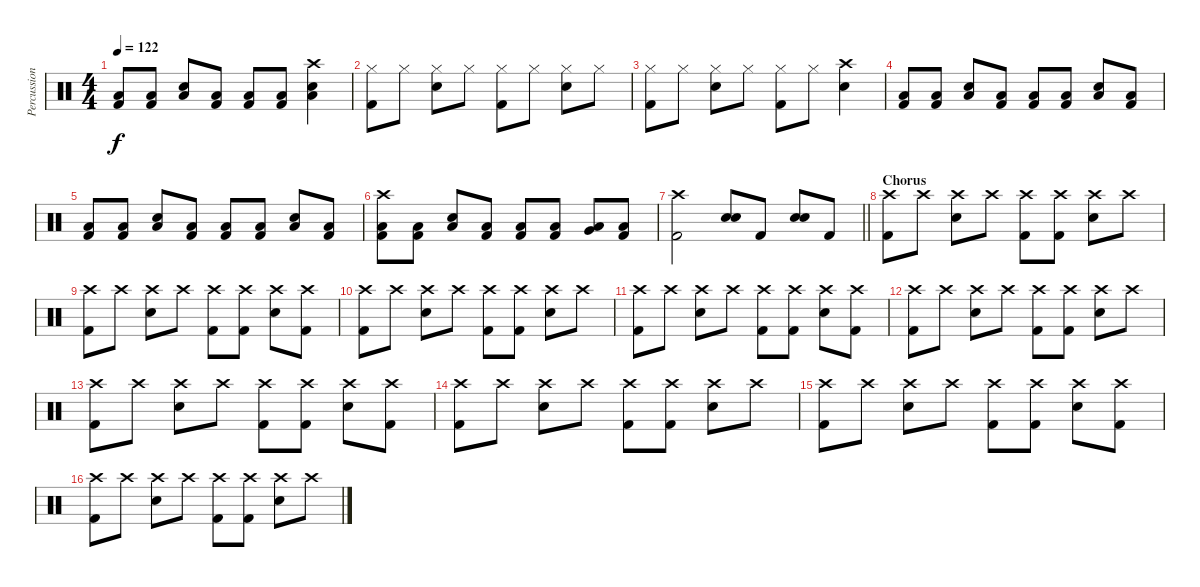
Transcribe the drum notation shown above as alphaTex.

\track ("Percussion" "Percussion") {instrument percussion}
\staff {score}
\articulation defaults
\ts (4 4)
\tempo 122
\clef neutral
\ks c
("Low Floor Tom (hit)" "Kick (hit) 2").8{dy f} ("Low Floor Tom (hit)" "Kick (hit) 2").8 ("Electric Snare (hit)" "Low Floor Tom (hit)").8 ("Low Floor Tom (hit)" "Kick (hit) 2").8 ("Low Floor Tom (hit)" "Kick (hit) 2").8 ("Low Floor Tom (hit)" "Kick (hit) 2").8 ("Crash high (hit)" "Electric Snare (hit)" "Low Floor Tom (hit)").4 |
("Hi-Hat (closed)" "Kick (hit) 2").8 "Hi-Hat (closed)".8 ("Hi-Hat (closed)" "Electric Snare (hit)").8 "Hi-Hat (closed)".8 ("Hi-Hat (closed)" "Kick (hit) 2").8 "Hi-Hat (closed)".8 ("Hi-Hat (closed)" "Electric Snare (hit)").8 "Hi-Hat (closed)".8 |
("Hi-Hat (closed)" "Kick (hit) 2").8 "Hi-Hat (closed)".8 ("Hi-Hat (closed)" "Electric Snare (hit)").8 "Hi-Hat (closed)".8 ("Hi-Hat (closed)" "Kick (hit) 2").8 "Hi-Hat (closed)".8 ("Crash high (hit)" "Electric Snare (hit)").4 |
("Low Floor Tom (hit)" "Kick (hit) 2").8 ("Low Floor Tom (hit)" "Kick (hit) 2").8 ("Electric Snare (hit)" "Low Floor Tom (hit)").8 ("Low Floor Tom (hit)" "Kick (hit) 2").8 ("Low Floor Tom (hit)" "Kick (hit) 2").8 ("Low Floor Tom (hit)" "Kick (hit) 2").8 ("Electric Snare (hit)" "Low Floor Tom (hit)").8 ("Low Floor Tom (hit)" "Kick (hit) 2").8 |
("Low Floor Tom (hit)" "Kick (hit) 2").8 ("Low Floor Tom (hit)" "Kick (hit) 2").8 ("Electric Snare (hit)" "Low Floor Tom (hit)").8 ("Low Floor Tom (hit)" "Kick (hit) 2").8 ("Low Floor Tom (hit)" "Kick (hit) 2").8 ("Low Floor Tom (hit)" "Kick (hit) 2").8 ("Electric Snare (hit)" "Low Floor Tom (hit)").8 ("Low Floor Tom (hit)" "Kick (hit) 2").8 |
("Crash high (hit)" "Low Floor Tom (hit)" "Kick (hit) 2").8 ("Low Floor Tom (hit)" "Kick (hit) 2").8 ("Electric Snare (hit)" "Low Floor Tom (hit)").8 ("Low Floor Tom (hit)" "Kick (hit) 2").8 ("Low Floor Tom (hit)" "Kick (hit) 2").8 ("Low Floor Tom (hit)" "Kick (hit) 2").8 ("Very Low Tom (hit)" "Low Floor Tom (hit)").8 ("Low Floor Tom (hit)" "Kick (hit) 2").8 |
\barLineRight lightlight
("Crash high (hit)" "Kick (hit) 2").2 ("Electric Snare (hit)" "Electric Snare (hit)").8 "Kick (hit) 2".8 ("Electric Snare (hit)" "Electric Snare (hit)").8 "Kick (hit) 2".8 |
\section ("" "Chorus")
("Crash high (hit)" "Kick (hit) 2").8 "Crash high (hit)".8 ("Crash high (hit)" "Electric Snare (hit)").8 "Crash high (hit)".8 ("Crash high (hit)" "Kick (hit) 2").8 ("Crash high (hit)" "Kick (hit) 2").8 ("Crash high (hit)" "Electric Snare (hit)").8 "Crash high (hit)".8 |
("Crash high (hit)" "Kick (hit) 2").8 "Crash high (hit)".8 ("Crash high (hit)" "Electric Snare (hit)").8 "Crash high (hit)".8 ("Crash high (hit)" "Kick (hit) 2").8 ("Crash high (hit)" "Kick (hit) 2").8 ("Crash high (hit)" "Electric Snare (hit)").8 ("Crash high (hit)" "Kick (hit) 2").8 |
("Crash high (hit)" "Kick (hit) 2").8 "Crash high (hit)".8 ("Crash high (hit)" "Electric Snare (hit)").8 "Crash high (hit)".8 ("Crash high (hit)" "Kick (hit) 2").8 ("Crash high (hit)" "Kick (hit) 2").8 ("Crash high (hit)" "Electric Snare (hit)").8 "Crash high (hit)".8 |
("Crash high (hit)" "Kick (hit) 2").8 "Crash high (hit)".8 ("Crash high (hit)" "Electric Snare (hit)").8 "Crash high (hit)".8 ("Crash high (hit)" "Kick (hit) 2").8 ("Crash high (hit)" "Kick (hit) 2").8 ("Crash high (hit)" "Electric Snare (hit)").8 ("Crash high (hit)" "Kick (hit) 2").8 |
("Crash high (hit)" "Kick (hit) 2").8 "Crash high (hit)".8 ("Crash high (hit)" "Electric Snare (hit)").8 "Crash high (hit)".8 ("Crash high (hit)" "Kick (hit) 2").8 ("Crash high (hit)" "Kick (hit) 2").8 ("Crash high (hit)" "Electric Snare (hit)").8 "Crash high (hit)".8 |
("Crash high (hit)" "Kick (hit) 2").8 "Crash high (hit)".8 ("Crash high (hit)" "Electric Snare (hit)").8 "Crash high (hit)".8 ("Crash high (hit)" "Kick (hit) 2").8 ("Crash high (hit)" "Kick (hit) 2").8 ("Crash high (hit)" "Electric Snare (hit)").8 ("Crash high (hit)" "Kick (hit) 2").8 |
("Crash high (hit)" "Kick (hit) 2").8 "Crash high (hit)".8 ("Crash high (hit)" "Electric Snare (hit)").8 "Crash high (hit)".8 ("Crash high (hit)" "Kick (hit) 2").8 ("Crash high (hit)" "Kick (hit) 2").8 ("Crash high (hit)" "Electric Snare (hit)").8 "Crash high (hit)".8 |
("Crash high (hit)" "Kick (hit) 2").8 "Crash high (hit)".8 ("Crash high (hit)" "Electric Snare (hit)").8 "Crash high (hit)".8 ("Crash high (hit)" "Kick (hit) 2").8 ("Crash high (hit)" "Kick (hit) 2").8 ("Crash high (hit)" "Electric Snare (hit)").8 ("Crash high (hit)" "Kick (hit) 2").8 |
("Crash high (hit)" "Kick (hit) 2").8 "Crash high (hit)".8 ("Crash high (hit)" "Electric Snare (hit)").8 "Crash high (hit)".8 ("Crash high (hit)" "Kick (hit) 2").8 ("Crash high (hit)" "Kick (hit) 2").8 ("Crash high (hit)" "Electric Snare (hit)").8 "Crash high (hit)".8
